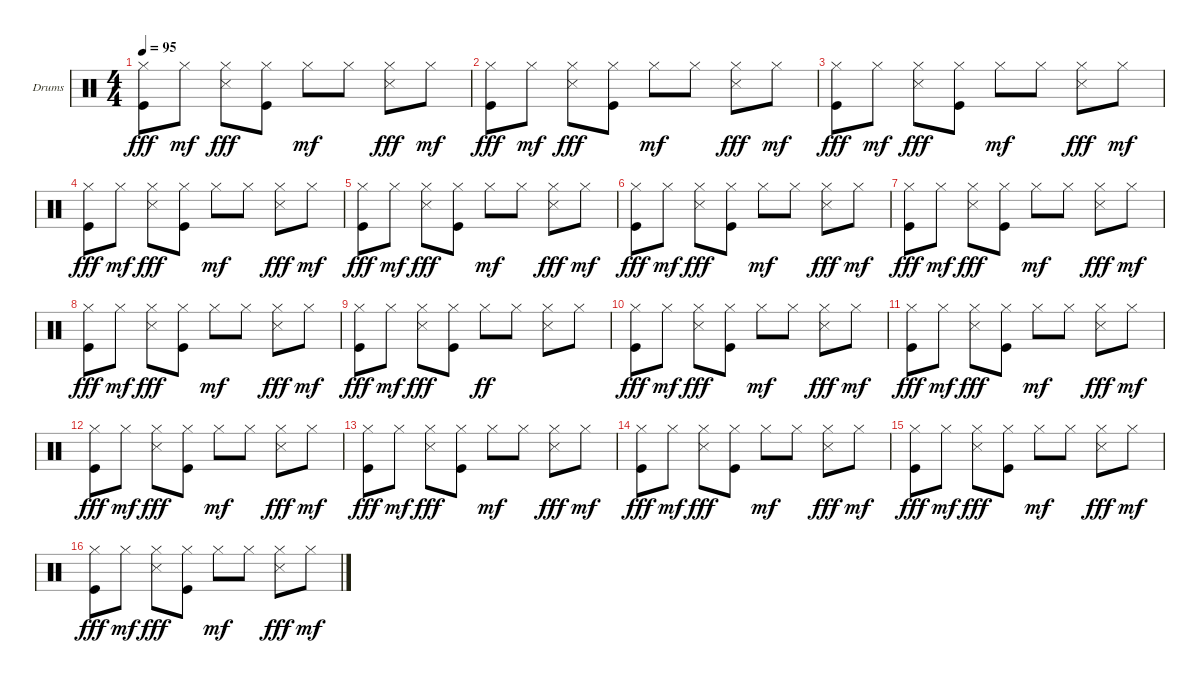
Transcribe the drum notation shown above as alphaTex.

\bracketExtendMode groupsimilarinstruments
\firstSystemTrackNameOrientation horizontal
\otherSystemsTrackNameOrientation horizontal
\track ("Drumkit" "Drums") {instrument percussion}
\staff {score}
\articulation defaults
\ts (4 4)
\beaming (8 2 2 2 2)
\tempo 95
\clef neutral
\ks c
("Kick (hit)" "Hi-Hat (closed)").8{dy fff} "Hi-Hat (closed)".8{dy mf} ("Snare (side stick) 3" "Hi-Hat (closed)").8{dy fff} ("Kick (hit)" "Hi-Hat (closed)").8 "Hi-Hat (closed)".8{dy mf} "Hi-Hat (closed)".8 ("Snare (side stick) 3" "Hi-Hat (closed)").8{dy fff} "Hi-Hat (closed)".8{dy mf} |
("Kick (hit)" "Hi-Hat (closed)").8{dy fff} "Hi-Hat (closed)".8{dy mf} ("Snare (side stick) 3" "Hi-Hat (closed)").8{dy fff} ("Kick (hit)" "Hi-Hat (closed)").8 "Hi-Hat (closed)".8{dy mf} "Hi-Hat (closed)".8 ("Snare (side stick) 3" "Hi-Hat (closed)").8{dy fff} "Hi-Hat (closed)".8{dy mf} |
("Kick (hit)" "Hi-Hat (closed)").8{dy fff} "Hi-Hat (closed)".8{dy mf} ("Snare (side stick) 3" "Hi-Hat (closed)").8{dy fff} ("Kick (hit)" "Hi-Hat (closed)").8 "Hi-Hat (closed)".8{dy mf} "Hi-Hat (closed)".8 ("Snare (side stick) 3" "Hi-Hat (closed)").8{dy fff} "Hi-Hat (closed)".8{dy mf} |
("Kick (hit)" "Hi-Hat (closed)").8{dy fff} "Hi-Hat (closed)".8{dy mf} ("Snare (side stick) 3" "Hi-Hat (closed)").8{dy fff} ("Kick (hit)" "Hi-Hat (closed)").8 "Hi-Hat (closed)".8{dy mf} "Hi-Hat (closed)".8 ("Snare (side stick) 3" "Hi-Hat (closed)").8{dy fff} "Hi-Hat (closed)".8{dy mf} |
("Kick (hit)" "Hi-Hat (closed)").8{dy fff} "Hi-Hat (closed)".8{dy mf} ("Snare (side stick) 3" "Hi-Hat (closed)").8{dy fff} ("Kick (hit)" "Hi-Hat (closed)").8 "Hi-Hat (closed)".8{dy mf} "Hi-Hat (closed)".8 ("Snare (side stick) 3" "Hi-Hat (closed)").8{dy fff} "Hi-Hat (closed)".8{dy mf} |
("Kick (hit)" "Hi-Hat (closed)").8{dy fff} "Hi-Hat (closed)".8{dy mf} ("Snare (side stick) 3" "Hi-Hat (closed)").8{dy fff} ("Kick (hit)" "Hi-Hat (closed)").8 "Hi-Hat (closed)".8{dy mf} "Hi-Hat (closed)".8 ("Snare (side stick) 3" "Hi-Hat (closed)").8{dy fff} "Hi-Hat (closed)".8{dy mf} |
("Kick (hit)" "Hi-Hat (closed)").8{dy fff} "Hi-Hat (closed)".8{dy mf} ("Snare (side stick) 3" "Hi-Hat (closed)").8{dy fff} ("Kick (hit)" "Hi-Hat (closed)").8 "Hi-Hat (closed)".8{dy mf} "Hi-Hat (closed)".8 ("Snare (side stick) 3" "Hi-Hat (closed)").8{dy fff} "Hi-Hat (closed)".8{dy mf} |
("Kick (hit)" "Hi-Hat (closed)").8{dy fff} "Hi-Hat (closed)".8{dy mf} ("Snare (side stick) 3" "Hi-Hat (closed)").8{dy fff} ("Kick (hit)" "Hi-Hat (closed)").8 "Hi-Hat (closed)".8{dy mf} "Hi-Hat (closed)".8 ("Snare (side stick) 3" "Hi-Hat (closed)").8{dy fff} "Hi-Hat (closed)".8{dy mf} |
("Kick (hit)" "Hi-Hat (closed)").8{dy fff} "Hi-Hat (closed)".8{dy mf} ("Snare (side stick) 3" "Hi-Hat (closed)").8{dy fff} ("Kick (hit)" "Hi-Hat (closed)").8 "Hi-Hat (closed)".8{dy ff} "Hi-Hat (closed)".8 ("Snare (side stick) 3" "Hi-Hat (closed)").8 "Hi-Hat (closed)".8 |
("Kick (hit)" "Hi-Hat (closed)").8{dy fff} "Hi-Hat (closed)".8{dy mf} ("Snare (side stick) 3" "Hi-Hat (closed)").8{dy fff} ("Kick (hit)" "Hi-Hat (closed)").8 "Hi-Hat (closed)".8{dy mf} "Hi-Hat (closed)".8 ("Snare (side stick) 3" "Hi-Hat (closed)").8{dy fff} "Hi-Hat (closed)".8{dy mf} |
("Kick (hit)" "Hi-Hat (closed)").8{dy fff} "Hi-Hat (closed)".8{dy mf} ("Snare (side stick) 3" "Hi-Hat (closed)").8{dy fff} ("Kick (hit)" "Hi-Hat (closed)").8 "Hi-Hat (closed)".8{dy mf} "Hi-Hat (closed)".8 ("Snare (side stick) 3" "Hi-Hat (closed)").8{dy fff} "Hi-Hat (closed)".8{dy mf} |
("Kick (hit)" "Hi-Hat (closed)").8{dy fff} "Hi-Hat (closed)".8{dy mf} ("Snare (side stick) 3" "Hi-Hat (closed)").8{dy fff} ("Kick (hit)" "Hi-Hat (closed)").8 "Hi-Hat (closed)".8{dy mf} "Hi-Hat (closed)".8 ("Snare (side stick) 3" "Hi-Hat (closed)").8{dy fff} "Hi-Hat (closed)".8{dy mf} |
("Kick (hit)" "Hi-Hat (closed)").8{dy fff} "Hi-Hat (closed)".8{dy mf} ("Snare (side stick) 3" "Hi-Hat (closed)").8{dy fff} ("Kick (hit)" "Hi-Hat (closed)").8 "Hi-Hat (closed)".8{dy mf} "Hi-Hat (closed)".8 ("Snare (side stick) 3" "Hi-Hat (closed)").8{dy fff} "Hi-Hat (closed)".8{dy mf} |
("Kick (hit)" "Hi-Hat (closed)").8{dy fff} "Hi-Hat (closed)".8{dy mf} ("Snare (side stick) 3" "Hi-Hat (closed)").8{dy fff} ("Kick (hit)" "Hi-Hat (closed)").8 "Hi-Hat (closed)".8{dy mf} "Hi-Hat (closed)".8 ("Snare (side stick) 3" "Hi-Hat (closed)").8{dy fff} "Hi-Hat (closed)".8{dy mf} |
("Kick (hit)" "Hi-Hat (closed)").8{dy fff} "Hi-Hat (closed)".8{dy mf} ("Snare (side stick) 3" "Hi-Hat (closed)").8{dy fff} ("Kick (hit)" "Hi-Hat (closed)").8 "Hi-Hat (closed)".8{dy mf} "Hi-Hat (closed)".8 ("Snare (side stick) 3" "Hi-Hat (closed)").8{dy fff} "Hi-Hat (closed)".8{dy mf} |
("Kick (hit)" "Hi-Hat (closed)").8{dy fff} "Hi-Hat (closed)".8{dy mf} ("Snare (side stick) 3" "Hi-Hat (closed)").8{dy fff} ("Kick (hit)" "Hi-Hat (closed)").8 "Hi-Hat (closed)".8{dy mf} "Hi-Hat (closed)".8 ("Snare (side stick) 3" "Hi-Hat (closed)").8{dy fff} "Hi-Hat (closed)".8{dy mf}
